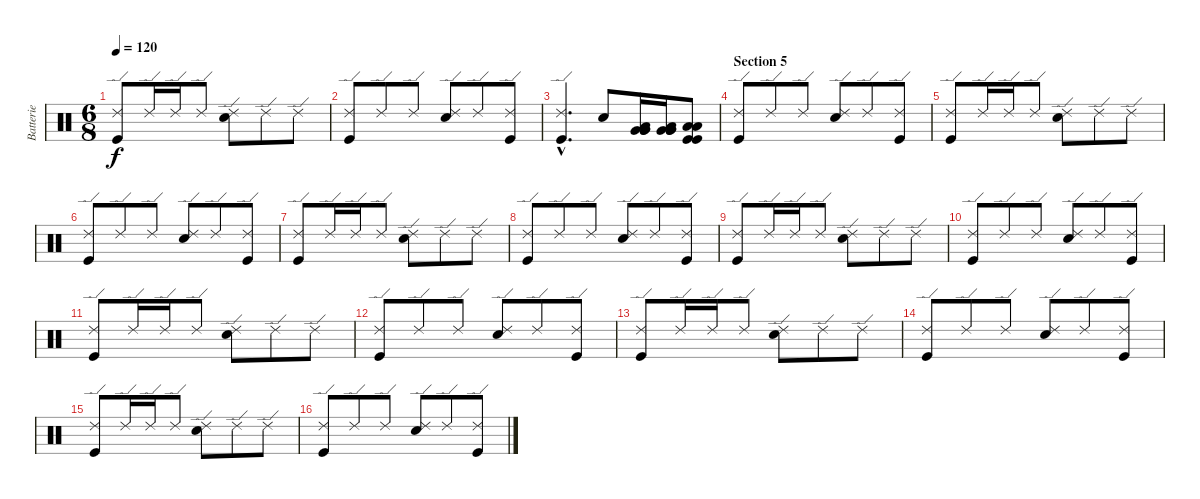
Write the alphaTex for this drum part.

\track ("Batterie" "Batterie") {instrument percussion}
\staff {score}
\articulation defaults
\ts (6 8)
\tempo 120
\clef neutral
\ks c
("Ride (edge) 2" "Kick (hit)").8{dy f} "Ride (edge) 2".16 "Ride (edge) 2".16 "Ride (edge) 2".8 ("Ride (edge) 2" "Snare (hit) 2").8 "Ride (edge) 2".8 "Ride (edge) 2".8 |
("Ride (edge) 2" "Kick (hit)").8 "Ride (edge) 2".8 "Ride (edge) 2".8 ("Ride (edge) 2" "Snare (hit) 2").8 "Ride (edge) 2".8 ("Ride (edge) 2" "Kick (hit)").8 |
("Ride (edge) 2"{hac} "Kick (hit)"{hac}).4{d} "Snare (hit) 2".8 ("Very Low Tom (hit)" "Very Low Tom (hit)" "Very Low Tom (hit)" "Low Floor Tom (hit)").16 ("Very Low Tom (hit)" "Very Low Tom (hit)" "Very Low Tom (hit)" "Low Floor Tom (hit)").16 ("Low Floor Tom (hit)" "Low Floor Tom (hit)" "Kick (hit)" "Kick (hit)").8 |
\section ("" "Section 5")
("Ride (edge) 2" "Kick (hit)").8{volume 14} "Ride (edge) 2".8 "Ride (edge) 2".8 ("Ride (edge) 2" "Snare (hit) 2").8 "Ride (edge) 2".8 ("Ride (edge) 2" "Kick (hit)").8 |
("Ride (edge) 2" "Kick (hit)").8 "Ride (edge) 2".16 "Ride (edge) 2".16 "Ride (edge) 2".8 ("Ride (edge) 2" "Snare (hit) 2").8 "Ride (edge) 2".8 "Ride (edge) 2".8 |
("Ride (edge) 2" "Kick (hit)").8 "Ride (edge) 2".8 "Ride (edge) 2".8 ("Ride (edge) 2" "Snare (hit) 2").8 "Ride (edge) 2".8 ("Ride (edge) 2" "Kick (hit)").8 |
("Ride (edge) 2" "Kick (hit)").8 "Ride (edge) 2".16 "Ride (edge) 2".16 "Ride (edge) 2".8 ("Ride (edge) 2" "Snare (hit) 2").8 "Ride (edge) 2".8 "Ride (edge) 2".8 |
("Ride (edge) 2" "Kick (hit)").8 "Ride (edge) 2".8 "Ride (edge) 2".8 ("Ride (edge) 2" "Snare (hit) 2").8 "Ride (edge) 2".8 ("Ride (edge) 2" "Kick (hit)").8 |
("Ride (edge) 2" "Kick (hit)").8 "Ride (edge) 2".16 "Ride (edge) 2".16 "Ride (edge) 2".8 ("Ride (edge) 2" "Snare (hit) 2").8 "Ride (edge) 2".8 "Ride (edge) 2".8 |
("Ride (edge) 2" "Kick (hit)").8 "Ride (edge) 2".8 "Ride (edge) 2".8 ("Ride (edge) 2" "Snare (hit) 2").8 "Ride (edge) 2".8 ("Ride (edge) 2" "Kick (hit)").8 |
("Ride (edge) 2" "Kick (hit)").8 "Ride (edge) 2".16 "Ride (edge) 2".16 "Ride (edge) 2".8 ("Ride (edge) 2" "Snare (hit) 2").8 "Ride (edge) 2".8 "Ride (edge) 2".8 |
("Ride (edge) 2" "Kick (hit)").8 "Ride (edge) 2".8 "Ride (edge) 2".8 ("Ride (edge) 2" "Snare (hit) 2").8 "Ride (edge) 2".8 ("Ride (edge) 2" "Kick (hit)").8 |
("Ride (edge) 2" "Kick (hit)").8 "Ride (edge) 2".16 "Ride (edge) 2".16 "Ride (edge) 2".8 ("Ride (edge) 2" "Snare (hit) 2").8 "Ride (edge) 2".8 "Ride (edge) 2".8 |
("Ride (edge) 2" "Kick (hit)").8 "Ride (edge) 2".8 "Ride (edge) 2".8 ("Ride (edge) 2" "Snare (hit) 2").8 "Ride (edge) 2".8 ("Ride (edge) 2" "Kick (hit)").8 |
("Ride (edge) 2" "Kick (hit)").8 "Ride (edge) 2".16 "Ride (edge) 2".16 "Ride (edge) 2".8 ("Ride (edge) 2" "Snare (hit) 2").8 "Ride (edge) 2".8 "Ride (edge) 2".8 |
("Ride (edge) 2" "Kick (hit)").8 "Ride (edge) 2".8 "Ride (edge) 2".8 ("Ride (edge) 2" "Snare (hit) 2").8 "Ride (edge) 2".8 ("Ride (edge) 2" "Kick (hit)").8
